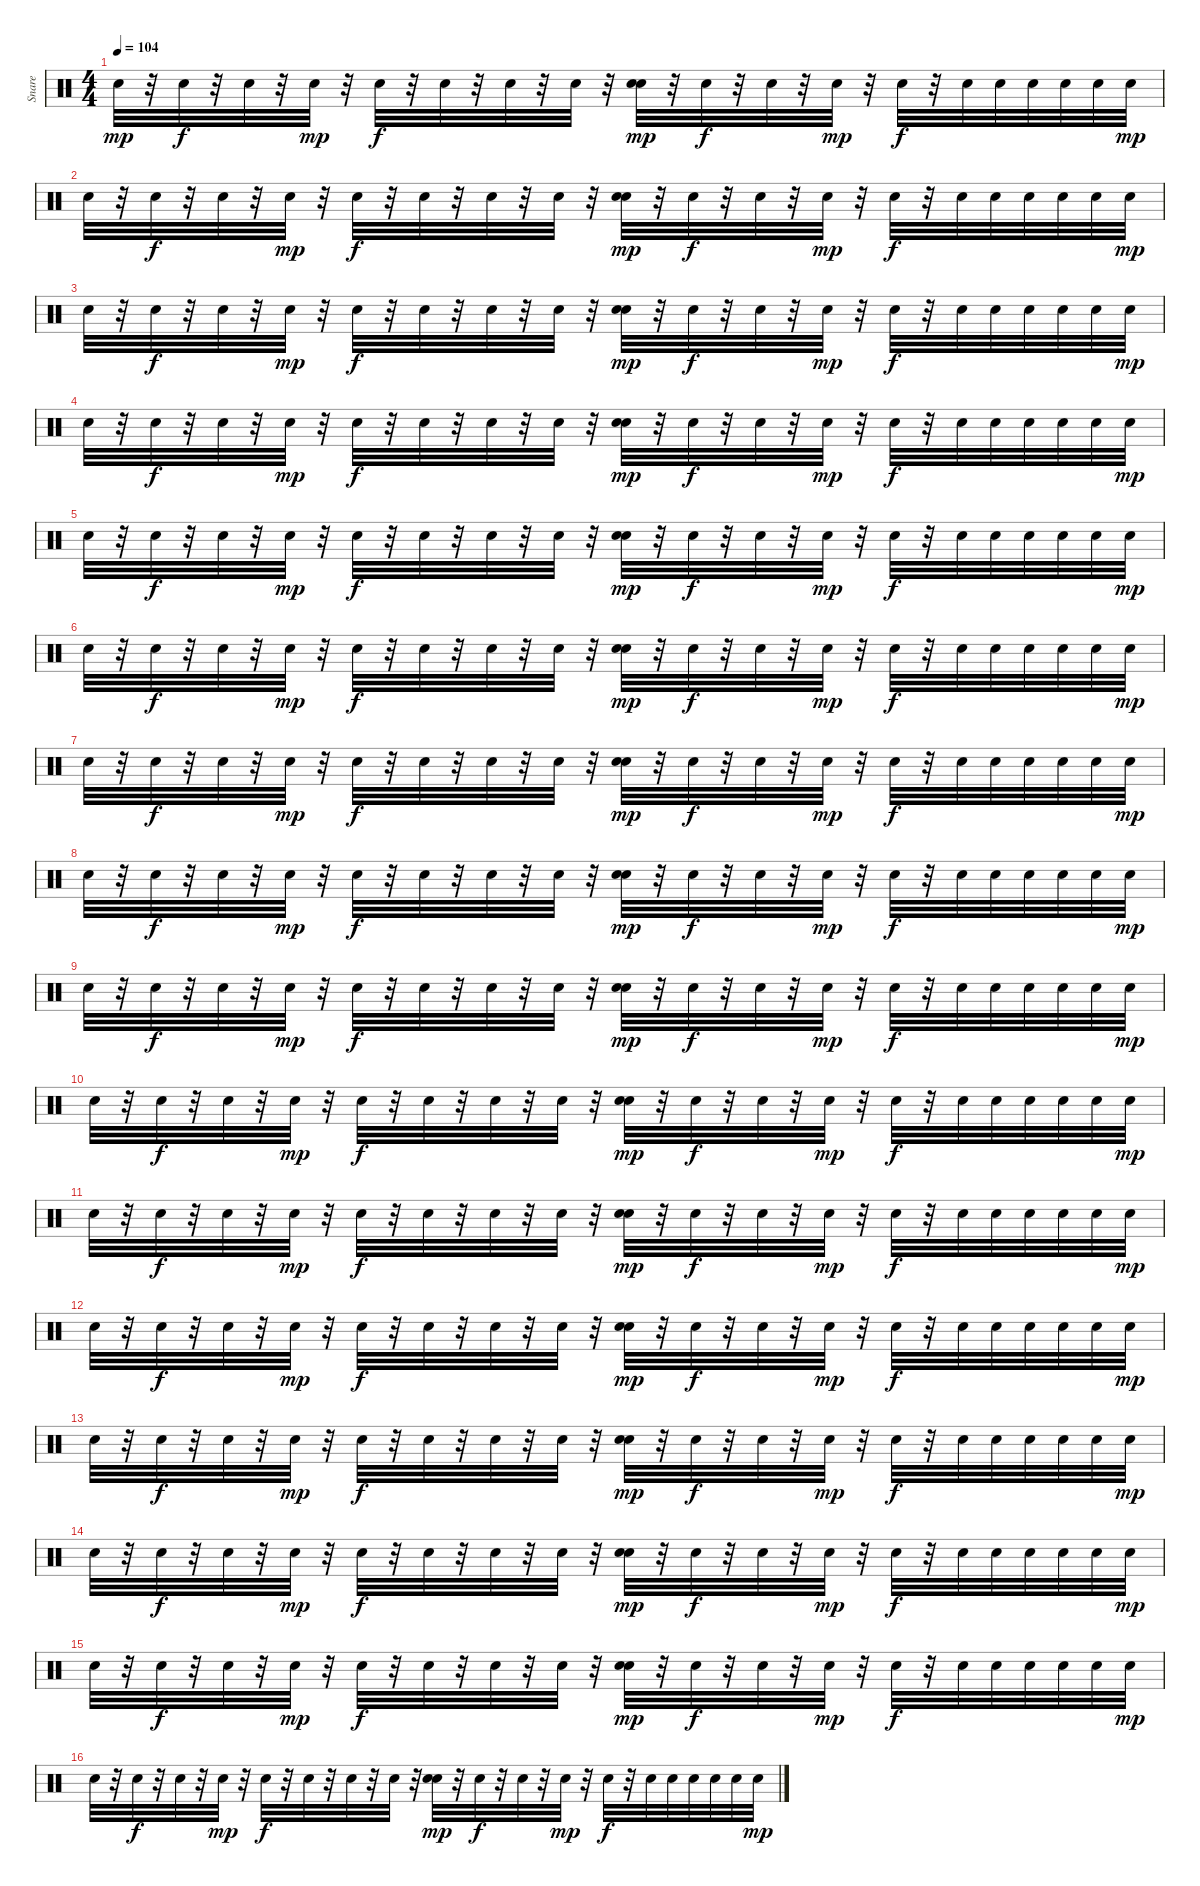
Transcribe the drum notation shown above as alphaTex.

\track ("Snare" "Snare") {instrument percussion}
\staff {score}
\articulation defaults
\ts (4 4)
\tempo 104
\clef neutral
\ks c "Snare (hit) 2".32{dy mp}
r.32 "Snare (hit) 2".32{dy f} r.32 "Snare (hit) 2".32 r.32 "Snare (hit) 2".32{dy mp} r.32 "Snare (hit) 2".32{dy f} r.32 "Snare (hit) 2".32 r.32 "Snare (hit) 2".32 r.32 "Snare (hit) 2".32 r.32 ("Snare (hit) 2" "Snare (hit) 2").32{dy mp} r.32 "Snare (hit) 2".32{dy f} r.32 "Snare (hit) 2".32 r.32 "Snare (hit) 2".32{dy mp} r.32 "Snare (hit) 2".32{dy f} r.32 "Snare (hit) 2".32 "Snare (hit) 2".32 "Snare (hit) 2".32 "Snare (hit) 2".32 "Snare (hit) 2".32 "Snare (hit) 2".32{dy mp} |
"Snare (hit) 2".32 r.32 "Snare (hit) 2".32{dy f} r.32 "Snare (hit) 2".32 r.32 "Snare (hit) 2".32{dy mp} r.32 "Snare (hit) 2".32{dy f} r.32 "Snare (hit) 2".32 r.32 "Snare (hit) 2".32 r.32 "Snare (hit) 2".32 r.32 ("Snare (hit) 2" "Snare (hit) 2").32{dy mp} r.32 "Snare (hit) 2".32{dy f} r.32 "Snare (hit) 2".32 r.32 "Snare (hit) 2".32{dy mp} r.32 "Snare (hit) 2".32{dy f} r.32 "Snare (hit) 2".32 "Snare (hit) 2".32 "Snare (hit) 2".32 "Snare (hit) 2".32 "Snare (hit) 2".32 "Snare (hit) 2".32{dy mp} |
"Snare (hit) 2".32 r.32 "Snare (hit) 2".32{dy f} r.32 "Snare (hit) 2".32 r.32 "Snare (hit) 2".32{dy mp} r.32 "Snare (hit) 2".32{dy f} r.32 "Snare (hit) 2".32 r.32 "Snare (hit) 2".32 r.32 "Snare (hit) 2".32 r.32 ("Snare (hit) 2" "Snare (hit) 2").32{dy mp} r.32 "Snare (hit) 2".32{dy f} r.32 "Snare (hit) 2".32 r.32 "Snare (hit) 2".32{dy mp} r.32 "Snare (hit) 2".32{dy f} r.32 "Snare (hit) 2".32 "Snare (hit) 2".32 "Snare (hit) 2".32 "Snare (hit) 2".32 "Snare (hit) 2".32 "Snare (hit) 2".32{dy mp} |
"Snare (hit) 2".32 r.32 "Snare (hit) 2".32{dy f} r.32 "Snare (hit) 2".32 r.32 "Snare (hit) 2".32{dy mp} r.32 "Snare (hit) 2".32{dy f} r.32 "Snare (hit) 2".32 r.32 "Snare (hit) 2".32 r.32 "Snare (hit) 2".32 r.32 ("Snare (hit) 2" "Snare (hit) 2").32{dy mp} r.32 "Snare (hit) 2".32{dy f} r.32 "Snare (hit) 2".32 r.32 "Snare (hit) 2".32{dy mp} r.32 "Snare (hit) 2".32{dy f} r.32 "Snare (hit) 2".32 "Snare (hit) 2".32 "Snare (hit) 2".32 "Snare (hit) 2".32 "Snare (hit) 2".32 "Snare (hit) 2".32{dy mp} |
"Snare (hit) 2".32 r.32 "Snare (hit) 2".32{dy f} r.32 "Snare (hit) 2".32 r.32 "Snare (hit) 2".32{dy mp} r.32 "Snare (hit) 2".32{dy f} r.32 "Snare (hit) 2".32 r.32 "Snare (hit) 2".32 r.32 "Snare (hit) 2".32 r.32 ("Snare (hit) 2" "Snare (hit) 2").32{dy mp} r.32 "Snare (hit) 2".32{dy f} r.32 "Snare (hit) 2".32 r.32 "Snare (hit) 2".32{dy mp} r.32 "Snare (hit) 2".32{dy f} r.32 "Snare (hit) 2".32 "Snare (hit) 2".32 "Snare (hit) 2".32 "Snare (hit) 2".32 "Snare (hit) 2".32 "Snare (hit) 2".32{dy mp} |
"Snare (hit) 2".32 r.32 "Snare (hit) 2".32{dy f} r.32 "Snare (hit) 2".32 r.32 "Snare (hit) 2".32{dy mp} r.32 "Snare (hit) 2".32{dy f} r.32 "Snare (hit) 2".32 r.32 "Snare (hit) 2".32 r.32 "Snare (hit) 2".32 r.32 ("Snare (hit) 2" "Snare (hit) 2").32{dy mp} r.32 "Snare (hit) 2".32{dy f} r.32 "Snare (hit) 2".32 r.32 "Snare (hit) 2".32{dy mp} r.32 "Snare (hit) 2".32{dy f} r.32 "Snare (hit) 2".32 "Snare (hit) 2".32 "Snare (hit) 2".32 "Snare (hit) 2".32 "Snare (hit) 2".32 "Snare (hit) 2".32{dy mp} |
"Snare (hit) 2".32 r.32 "Snare (hit) 2".32{dy f} r.32 "Snare (hit) 2".32 r.32 "Snare (hit) 2".32{dy mp} r.32 "Snare (hit) 2".32{dy f} r.32 "Snare (hit) 2".32 r.32 "Snare (hit) 2".32 r.32 "Snare (hit) 2".32 r.32 ("Snare (hit) 2" "Snare (hit) 2").32{dy mp} r.32 "Snare (hit) 2".32{dy f} r.32 "Snare (hit) 2".32 r.32 "Snare (hit) 2".32{dy mp} r.32 "Snare (hit) 2".32{dy f} r.32 "Snare (hit) 2".32 "Snare (hit) 2".32 "Snare (hit) 2".32 "Snare (hit) 2".32 "Snare (hit) 2".32 "Snare (hit) 2".32{dy mp} |
"Snare (hit) 2".32 r.32 "Snare (hit) 2".32{dy f} r.32 "Snare (hit) 2".32 r.32 "Snare (hit) 2".32{dy mp} r.32 "Snare (hit) 2".32{dy f} r.32 "Snare (hit) 2".32 r.32 "Snare (hit) 2".32 r.32 "Snare (hit) 2".32 r.32 ("Snare (hit) 2" "Snare (hit) 2").32{dy mp} r.32 "Snare (hit) 2".32{dy f} r.32 "Snare (hit) 2".32 r.32 "Snare (hit) 2".32{dy mp} r.32 "Snare (hit) 2".32{dy f} r.32 "Snare (hit) 2".32 "Snare (hit) 2".32 "Snare (hit) 2".32 "Snare (hit) 2".32 "Snare (hit) 2".32 "Snare (hit) 2".32{dy mp} |
"Snare (hit) 2".32 r.32 "Snare (hit) 2".32{dy f} r.32 "Snare (hit) 2".32 r.32 "Snare (hit) 2".32{dy mp} r.32 "Snare (hit) 2".32{dy f} r.32 "Snare (hit) 2".32 r.32 "Snare (hit) 2".32 r.32 "Snare (hit) 2".32 r.32 ("Snare (hit) 2" "Snare (hit) 2").32{dy mp} r.32 "Snare (hit) 2".32{dy f} r.32 "Snare (hit) 2".32 r.32 "Snare (hit) 2".32{dy mp} r.32 "Snare (hit) 2".32{dy f} r.32 "Snare (hit) 2".32 "Snare (hit) 2".32 "Snare (hit) 2".32 "Snare (hit) 2".32 "Snare (hit) 2".32 "Snare (hit) 2".32{dy mp} |
"Snare (hit) 2".32 r.32 "Snare (hit) 2".32{dy f} r.32 "Snare (hit) 2".32 r.32 "Snare (hit) 2".32{dy mp} r.32 "Snare (hit) 2".32{dy f} r.32 "Snare (hit) 2".32 r.32 "Snare (hit) 2".32 r.32 "Snare (hit) 2".32 r.32 ("Snare (hit) 2" "Snare (hit) 2").32{dy mp} r.32 "Snare (hit) 2".32{dy f} r.32 "Snare (hit) 2".32 r.32 "Snare (hit) 2".32{dy mp} r.32 "Snare (hit) 2".32{dy f} r.32 "Snare (hit) 2".32 "Snare (hit) 2".32 "Snare (hit) 2".32 "Snare (hit) 2".32 "Snare (hit) 2".32 "Snare (hit) 2".32{dy mp} |
"Snare (hit) 2".32 r.32 "Snare (hit) 2".32{dy f} r.32 "Snare (hit) 2".32 r.32 "Snare (hit) 2".32{dy mp} r.32 "Snare (hit) 2".32{dy f} r.32 "Snare (hit) 2".32 r.32 "Snare (hit) 2".32 r.32 "Snare (hit) 2".32 r.32 ("Snare (hit) 2" "Snare (hit) 2").32{dy mp} r.32 "Snare (hit) 2".32{dy f} r.32 "Snare (hit) 2".32 r.32 "Snare (hit) 2".32{dy mp} r.32 "Snare (hit) 2".32{dy f} r.32 "Snare (hit) 2".32 "Snare (hit) 2".32 "Snare (hit) 2".32 "Snare (hit) 2".32 "Snare (hit) 2".32 "Snare (hit) 2".32{dy mp} |
"Snare (hit) 2".32 r.32 "Snare (hit) 2".32{dy f} r.32 "Snare (hit) 2".32 r.32 "Snare (hit) 2".32{dy mp} r.32 "Snare (hit) 2".32{dy f} r.32 "Snare (hit) 2".32 r.32 "Snare (hit) 2".32 r.32 "Snare (hit) 2".32 r.32 ("Snare (hit) 2" "Snare (hit) 2").32{dy mp} r.32 "Snare (hit) 2".32{dy f} r.32 "Snare (hit) 2".32 r.32 "Snare (hit) 2".32{dy mp} r.32 "Snare (hit) 2".32{dy f} r.32 "Snare (hit) 2".32 "Snare (hit) 2".32 "Snare (hit) 2".32 "Snare (hit) 2".32 "Snare (hit) 2".32 "Snare (hit) 2".32{dy mp} |
"Snare (hit) 2".32 r.32 "Snare (hit) 2".32{dy f} r.32 "Snare (hit) 2".32 r.32 "Snare (hit) 2".32{dy mp} r.32 "Snare (hit) 2".32{dy f} r.32 "Snare (hit) 2".32 r.32 "Snare (hit) 2".32 r.32 "Snare (hit) 2".32 r.32 ("Snare (hit) 2" "Snare (hit) 2").32{dy mp} r.32 "Snare (hit) 2".32{dy f} r.32 "Snare (hit) 2".32 r.32 "Snare (hit) 2".32{dy mp} r.32 "Snare (hit) 2".32{dy f} r.32 "Snare (hit) 2".32 "Snare (hit) 2".32 "Snare (hit) 2".32 "Snare (hit) 2".32 "Snare (hit) 2".32 "Snare (hit) 2".32{dy mp} |
"Snare (hit) 2".32 r.32 "Snare (hit) 2".32{dy f} r.32 "Snare (hit) 2".32 r.32 "Snare (hit) 2".32{dy mp} r.32 "Snare (hit) 2".32{dy f} r.32 "Snare (hit) 2".32 r.32 "Snare (hit) 2".32 r.32 "Snare (hit) 2".32 r.32 ("Snare (hit) 2" "Snare (hit) 2").32{dy mp} r.32 "Snare (hit) 2".32{dy f} r.32 "Snare (hit) 2".32 r.32 "Snare (hit) 2".32{dy mp} r.32 "Snare (hit) 2".32{dy f} r.32 "Snare (hit) 2".32 "Snare (hit) 2".32 "Snare (hit) 2".32 "Snare (hit) 2".32 "Snare (hit) 2".32 "Snare (hit) 2".32{dy mp} |
"Snare (hit) 2".32 r.32 "Snare (hit) 2".32{dy f} r.32 "Snare (hit) 2".32 r.32 "Snare (hit) 2".32{dy mp} r.32 "Snare (hit) 2".32{dy f} r.32 "Snare (hit) 2".32 r.32 "Snare (hit) 2".32 r.32 "Snare (hit) 2".32 r.32 ("Snare (hit) 2" "Snare (hit) 2").32{dy mp} r.32 "Snare (hit) 2".32{dy f} r.32 "Snare (hit) 2".32 r.32 "Snare (hit) 2".32{dy mp} r.32 "Snare (hit) 2".32{dy f} r.32 "Snare (hit) 2".32 "Snare (hit) 2".32 "Snare (hit) 2".32 "Snare (hit) 2".32 "Snare (hit) 2".32 "Snare (hit) 2".32{dy mp} |
"Snare (hit) 2".32 r.32 "Snare (hit) 2".32{dy f} r.32 "Snare (hit) 2".32 r.32 "Snare (hit) 2".32{dy mp} r.32 "Snare (hit) 2".32{dy f} r.32 "Snare (hit) 2".32 r.32 "Snare (hit) 2".32 r.32 "Snare (hit) 2".32 r.32 ("Snare (hit) 2" "Snare (hit) 2").32{dy mp} r.32 "Snare (hit) 2".32{dy f} r.32 "Snare (hit) 2".32 r.32 "Snare (hit) 2".32{dy mp} r.32 "Snare (hit) 2".32{dy f} r.32 "Snare (hit) 2".32 "Snare (hit) 2".32 "Snare (hit) 2".32 "Snare (hit) 2".32 "Snare (hit) 2".32 "Snare (hit) 2".32{dy mp}
